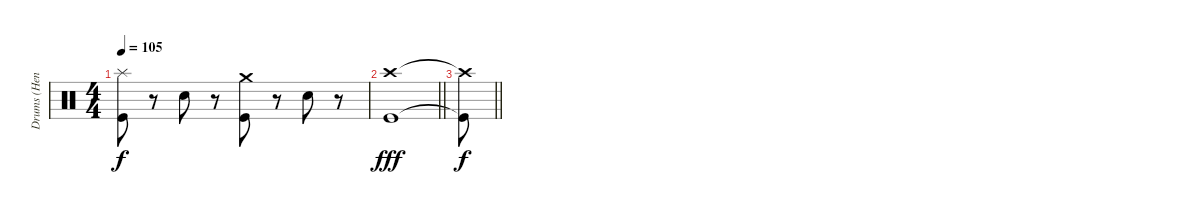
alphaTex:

\track ("Drums (Henry)" "Drums (Hen") {instrument percussion}
\staff {score}
\articulation defaults
\ts (4 4)
\tempo 105
\clef neutral
\ks c
("Kick (hit)" "Splash (hit)").8{dy f} r.8 "Snare (hit) 2".8 r.8 ("Kick (hit)" "Crash medium (hit)").8 r.8 "Snare (hit) 2".8 r.8 |
\barLineRight lightlight
("Kick (hit)" "Crash high (hit)").1{dy fff} |
\barLineRight lightlight
("Kick (hit)"{t} "Crash high (hit)"{t}).8{dy f}
